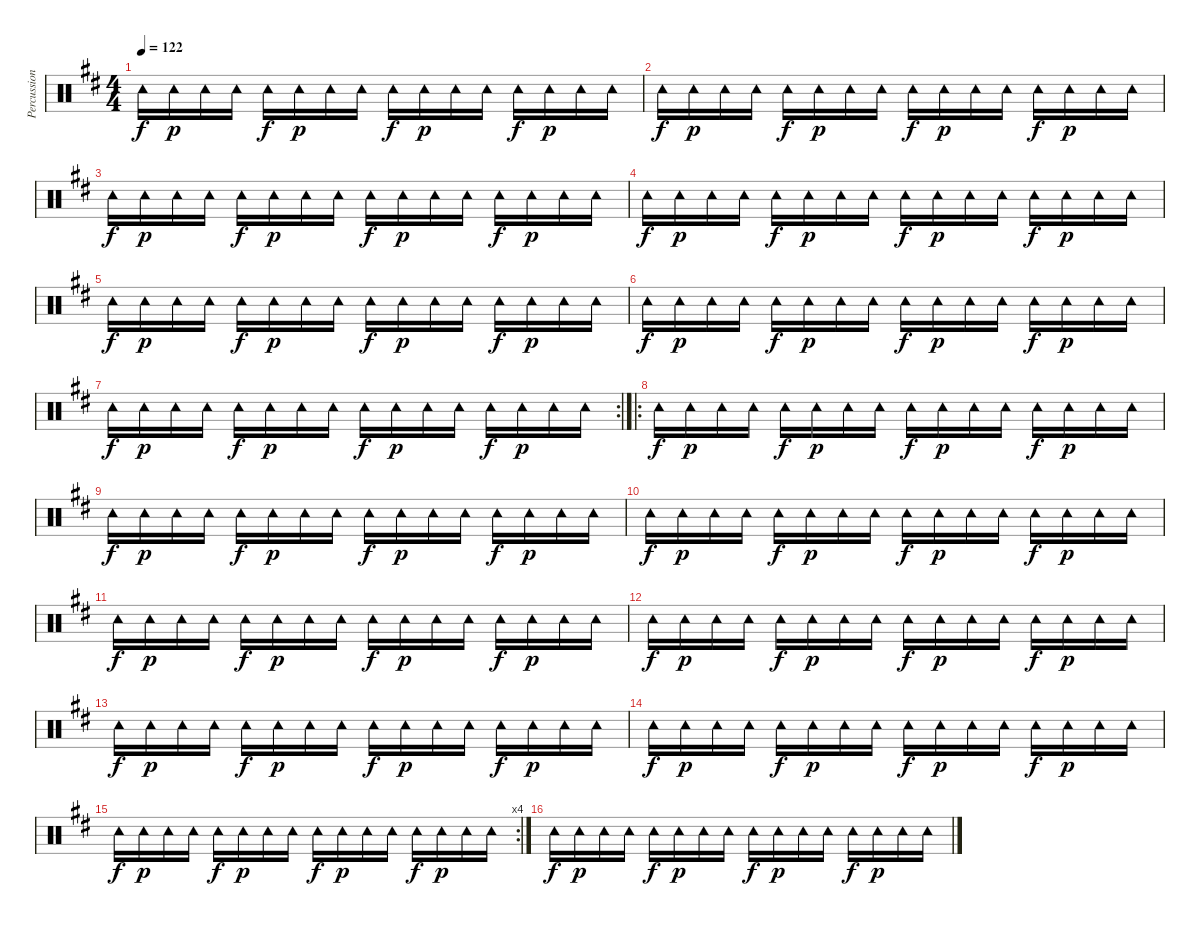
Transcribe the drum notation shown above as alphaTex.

\track ("Percussions" "Percussion") {instrument percussion}
\staff {score}
\articulation defaults
\ts (4 4)
\tempo 122
\clef neutral
\ks d "Tambourine (hit)".16{dy f} "Tambourine (hit)".16{dy p} "Tambourine (hit)".16 "Tambourine (hit)".16 "Tambourine (hit)".16{dy f} "Tambourine (hit)".16{dy p} "Tambourine (hit)".16 "Tambourine (hit)".16 "Tambourine (hit)".16{dy f} "Tambourine (hit)".16{dy p} "Tambourine (hit)".16 "Tambourine (hit)".16 "Tambourine (hit)".16{dy f} "Tambourine (hit)".16{dy p} "Tambourine (hit)".16 "Tambourine (hit)".16
|
"Tambourine (hit)".16{dy f} "Tambourine (hit)".16{dy p} "Tambourine (hit)".16 "Tambourine (hit)".16 "Tambourine (hit)".16{dy f} "Tambourine (hit)".16{dy p} "Tambourine (hit)".16 "Tambourine (hit)".16 "Tambourine (hit)".16{dy f} "Tambourine (hit)".16{dy p} "Tambourine (hit)".16 "Tambourine (hit)".16 "Tambourine (hit)".16{dy f} "Tambourine (hit)".16{dy p} "Tambourine (hit)".16 "Tambourine (hit)".16 |
"Tambourine (hit)".16{dy f} "Tambourine (hit)".16{dy p} "Tambourine (hit)".16 "Tambourine (hit)".16 "Tambourine (hit)".16{dy f} "Tambourine (hit)".16{dy p} "Tambourine (hit)".16 "Tambourine (hit)".16 "Tambourine (hit)".16{dy f} "Tambourine (hit)".16{dy p} "Tambourine (hit)".16 "Tambourine (hit)".16 "Tambourine (hit)".16{dy f} "Tambourine (hit)".16{dy p} "Tambourine (hit)".16 "Tambourine (hit)".16 |
"Tambourine (hit)".16{dy f} "Tambourine (hit)".16{dy p} "Tambourine (hit)".16 "Tambourine (hit)".16 "Tambourine (hit)".16{dy f} "Tambourine (hit)".16{dy p} "Tambourine (hit)".16 "Tambourine (hit)".16 "Tambourine (hit)".16{dy f} "Tambourine (hit)".16{dy p} "Tambourine (hit)".16 "Tambourine (hit)".16 "Tambourine (hit)".16{dy f} "Tambourine (hit)".16{dy p} "Tambourine (hit)".16 "Tambourine (hit)".16 |
"Tambourine (hit)".16{dy f} "Tambourine (hit)".16{dy p} "Tambourine (hit)".16 "Tambourine (hit)".16 "Tambourine (hit)".16{dy f} "Tambourine (hit)".16{dy p} "Tambourine (hit)".16 "Tambourine (hit)".16 "Tambourine (hit)".16{dy f} "Tambourine (hit)".16{dy p} "Tambourine (hit)".16 "Tambourine (hit)".16 "Tambourine (hit)".16{dy f} "Tambourine (hit)".16{dy p} "Tambourine (hit)".16 "Tambourine (hit)".16 |
"Tambourine (hit)".16{dy f} "Tambourine (hit)".16{dy p} "Tambourine (hit)".16 "Tambourine (hit)".16 "Tambourine (hit)".16{dy f} "Tambourine (hit)".16{dy p} "Tambourine (hit)".16 "Tambourine (hit)".16 "Tambourine (hit)".16{dy f} "Tambourine (hit)".16{dy p} "Tambourine (hit)".16 "Tambourine (hit)".16 "Tambourine (hit)".16{dy f} "Tambourine (hit)".16{dy p} "Tambourine (hit)".16 "Tambourine (hit)".16 |
\rc 2 "Tambourine (hit)".16{dy f} "Tambourine (hit)".16{dy p} "Tambourine (hit)".16 "Tambourine (hit)".16 "Tambourine (hit)".16{dy f} "Tambourine (hit)".16{dy p} "Tambourine (hit)".16 "Tambourine (hit)".16 "Tambourine (hit)".16{dy f} "Tambourine (hit)".16{dy p} "Tambourine (hit)".16 "Tambourine (hit)".16 "Tambourine (hit)".16{dy f} "Tambourine (hit)".16{dy p} "Tambourine (hit)".16 "Tambourine (hit)".16
|
\ro "Tambourine (hit)".16{dy f} "Tambourine (hit)".16{dy p} "Tambourine (hit)".16 "Tambourine (hit)".16 "Tambourine (hit)".16{dy f} "Tambourine (hit)".16{dy p} "Tambourine (hit)".16 "Tambourine (hit)".16 "Tambourine (hit)".16{dy f} "Tambourine (hit)".16{dy p} "Tambourine (hit)".16 "Tambourine (hit)".16 "Tambourine (hit)".16{dy f} "Tambourine (hit)".16{dy p} "Tambourine (hit)".16 "Tambourine (hit)".16
|
"Tambourine (hit)".16{dy f} "Tambourine (hit)".16{dy p} "Tambourine (hit)".16 "Tambourine (hit)".16 "Tambourine (hit)".16{dy f} "Tambourine (hit)".16{dy p} "Tambourine (hit)".16 "Tambourine (hit)".16 "Tambourine (hit)".16{dy f} "Tambourine (hit)".16{dy p} "Tambourine (hit)".16 "Tambourine (hit)".16 "Tambourine (hit)".16{dy f} "Tambourine (hit)".16{dy p} "Tambourine (hit)".16 "Tambourine (hit)".16 |
"Tambourine (hit)".16{dy f} "Tambourine (hit)".16{dy p} "Tambourine (hit)".16 "Tambourine (hit)".16 "Tambourine (hit)".16{dy f} "Tambourine (hit)".16{dy p} "Tambourine (hit)".16 "Tambourine (hit)".16 "Tambourine (hit)".16{dy f} "Tambourine (hit)".16{dy p} "Tambourine (hit)".16 "Tambourine (hit)".16 "Tambourine (hit)".16{dy f} "Tambourine (hit)".16{dy p} "Tambourine (hit)".16 "Tambourine (hit)".16 |
"Tambourine (hit)".16{dy f} "Tambourine (hit)".16{dy p} "Tambourine (hit)".16 "Tambourine (hit)".16 "Tambourine (hit)".16{dy f} "Tambourine (hit)".16{dy p} "Tambourine (hit)".16 "Tambourine (hit)".16 "Tambourine (hit)".16{dy f} "Tambourine (hit)".16{dy p} "Tambourine (hit)".16 "Tambourine (hit)".16 "Tambourine (hit)".16{dy f} "Tambourine (hit)".16{dy p} "Tambourine (hit)".16 "Tambourine (hit)".16 |
"Tambourine (hit)".16{dy f} "Tambourine (hit)".16{dy p} "Tambourine (hit)".16 "Tambourine (hit)".16 "Tambourine (hit)".16{dy f} "Tambourine (hit)".16{dy p} "Tambourine (hit)".16 "Tambourine (hit)".16 "Tambourine (hit)".16{dy f} "Tambourine (hit)".16{dy p} "Tambourine (hit)".16 "Tambourine (hit)".16 "Tambourine (hit)".16{dy f} "Tambourine (hit)".16{dy p} "Tambourine (hit)".16 "Tambourine (hit)".16 |
"Tambourine (hit)".16{dy f} "Tambourine (hit)".16{dy p} "Tambourine (hit)".16 "Tambourine (hit)".16 "Tambourine (hit)".16{dy f} "Tambourine (hit)".16{dy p} "Tambourine (hit)".16 "Tambourine (hit)".16 "Tambourine (hit)".16{dy f} "Tambourine (hit)".16{dy p} "Tambourine (hit)".16 "Tambourine (hit)".16 "Tambourine (hit)".16{dy f} "Tambourine (hit)".16{dy p} "Tambourine (hit)".16 "Tambourine (hit)".16 |
"Tambourine (hit)".16{dy f} "Tambourine (hit)".16{dy p} "Tambourine (hit)".16 "Tambourine (hit)".16 "Tambourine (hit)".16{dy f} "Tambourine (hit)".16{dy p} "Tambourine (hit)".16 "Tambourine (hit)".16 "Tambourine (hit)".16{dy f} "Tambourine (hit)".16{dy p} "Tambourine (hit)".16 "Tambourine (hit)".16 "Tambourine (hit)".16{dy f} "Tambourine (hit)".16{dy p} "Tambourine (hit)".16 "Tambourine (hit)".16 |
\rc 4 "Tambourine (hit)".16{dy f} "Tambourine (hit)".16{dy p} "Tambourine (hit)".16 "Tambourine (hit)".16 "Tambourine (hit)".16{dy f} "Tambourine (hit)".16{dy p} "Tambourine (hit)".16 "Tambourine (hit)".16 "Tambourine (hit)".16{dy f} "Tambourine (hit)".16{dy p} "Tambourine (hit)".16 "Tambourine (hit)".16 "Tambourine (hit)".16{dy f} "Tambourine (hit)".16{dy p} "Tambourine (hit)".16 "Tambourine (hit)".16
|
"Tambourine (hit)".16{dy f} "Tambourine (hit)".16{dy p} "Tambourine (hit)".16 "Tambourine (hit)".16 "Tambourine (hit)".16{dy f} "Tambourine (hit)".16{dy p} "Tambourine (hit)".16 "Tambourine (hit)".16 "Tambourine (hit)".16{dy f} "Tambourine (hit)".16{dy p} "Tambourine (hit)".16 "Tambourine (hit)".16 "Tambourine (hit)".16{dy f} "Tambourine (hit)".16{dy p} "Tambourine (hit)".16 "Tambourine (hit)".16
